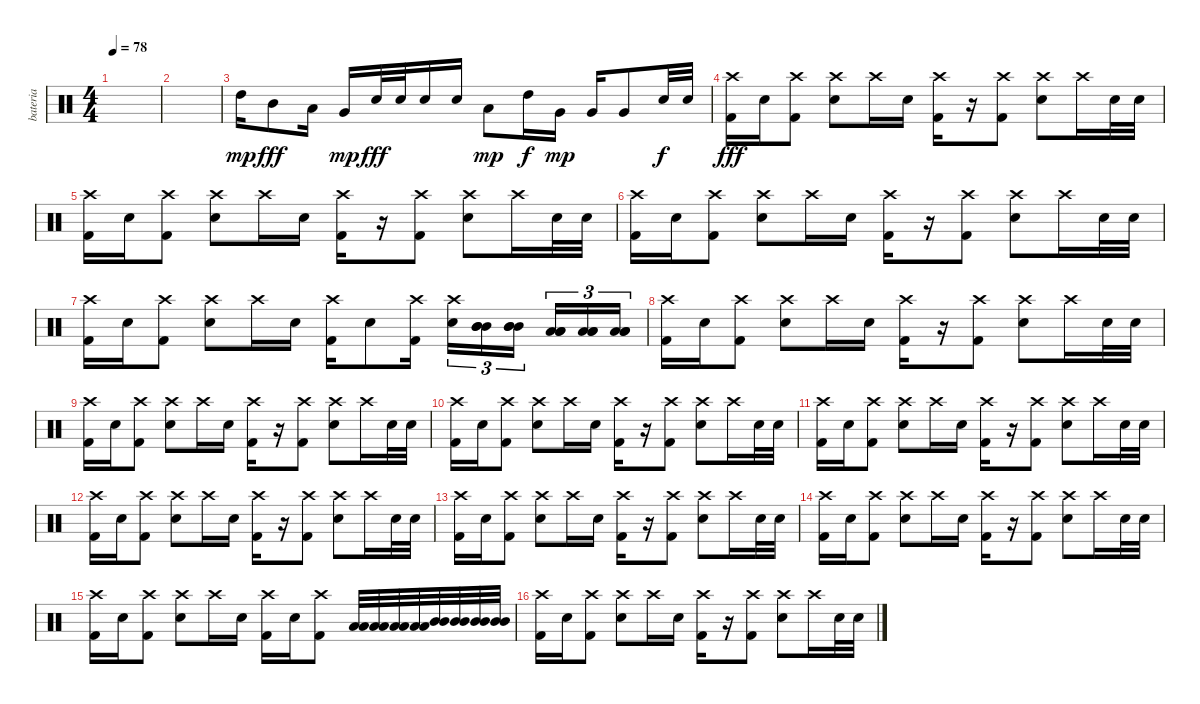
\track ("bateria" "bateria") {instrument percussion}
\staff {score}
\articulation defaults
\ts (4 4)
\tempo 78
\clef neutral
\ks c
|
|
"High Tom (hit)".16{dy mp} "Mid Tom (hit)".8{dy fff} "Low Tom (hit)".16 "Very Low Tom (hit)".16{dy mp} "Electric Snare (hit)".32{dy fff} "Electric Snare (hit)".32 "Electric Snare (hit)".16 "Electric Snare (hit)".16 "Low Tom (hit)".8{dy mp} "High Tom (hit)".16{dy f} "Very Low Tom (hit)".16{dy mp} "Very Low Tom (hit)".16 "Very Low Tom (hit)".8 "Electric Snare (hit)".32{dy f} "Electric Snare (hit)".32 |
("Kick (hit) 2" "Crash high (hit)").16{dy fff} "Electric Snare (hit)".16 ("Kick (hit) 2" "Crash high (hit)").8 ("Electric Snare (hit)" "Crash high (hit)").8 "Crash high (hit)".16 "Electric Snare (hit)".16 ("Kick (hit) 2" "Crash high (hit)").16 r.16 ("Kick (hit) 2" "Crash high (hit)").8 ("Electric Snare (hit)" "Crash high (hit)").8 "Crash high (hit)".16 "Electric Snare (hit)".32 "Electric Snare (hit)".32 |
("Kick (hit) 2" "Crash high (hit)").16 "Electric Snare (hit)".16 ("Kick (hit) 2" "Crash high (hit)").8 ("Electric Snare (hit)" "Crash high (hit)").8 "Crash high (hit)".16 "Electric Snare (hit)".16 ("Kick (hit) 2" "Crash high (hit)").16 r.16 ("Kick (hit) 2" "Crash high (hit)").8 ("Electric Snare (hit)" "Crash high (hit)").8 "Crash high (hit)".16 "Electric Snare (hit)".32 "Electric Snare (hit)".32 |
("Kick (hit) 2" "Crash high (hit)").16 "Electric Snare (hit)".16 ("Kick (hit) 2" "Crash high (hit)").8 ("Electric Snare (hit)" "Crash high (hit)").8 "Crash high (hit)".16 "Electric Snare (hit)".16 ("Kick (hit) 2" "Crash high (hit)").16 r.16 ("Kick (hit) 2" "Crash high (hit)").8 ("Electric Snare (hit)" "Crash high (hit)").8 "Crash high (hit)".16 "Electric Snare (hit)".32 "Electric Snare (hit)".32 |
("Kick (hit) 2" "Crash high (hit)").16 "Electric Snare (hit)".16 ("Kick (hit) 2" "Crash high (hit)").8 ("Electric Snare (hit)" "Crash high (hit)").8 "Crash high (hit)".16 "Electric Snare (hit)".16 ("Kick (hit) 2" "Crash high (hit)").16 "Electric Snare (hit)".8 ("Kick (hit) 2" "Crash high (hit)").16 ("Electric Snare (hit)" "Crash high (hit)").16{tu (3 2)} ("Mid Tom (hit)" "Mid Tom (hit)" "Mid Tom (hit)").16{tu (3 2)} ("Mid Tom (hit)" "Mid Tom (hit)" "Mid Tom (hit)").16{tu (3 2) beam splitsecondary} ("Low Tom (hit)" "Low Tom (hit)" "Low Tom (hit)").16{tu (3 2)} ("Low Tom (hit)" "Low Tom (hit)" "Low Tom (hit)").16{tu (3 2)} ("Low Tom (hit)" "Low Tom (hit)" "Low Tom (hit)").16{tu (3 2)} |
("Kick (hit) 2" "Crash high (hit)").16 "Electric Snare (hit)".16 ("Kick (hit) 2" "Crash high (hit)").8 ("Electric Snare (hit)" "Crash high (hit)").8 "Crash high (hit)".16 "Electric Snare (hit)".16 ("Kick (hit) 2" "Crash high (hit)").16 r.16 ("Kick (hit) 2" "Crash high (hit)").8 ("Electric Snare (hit)" "Crash high (hit)").8 "Crash high (hit)".16 "Electric Snare (hit)".32 "Electric Snare (hit)".32 |
("Kick (hit) 2" "Crash high (hit)").16 "Electric Snare (hit)".16 ("Kick (hit) 2" "Crash high (hit)").8 ("Electric Snare (hit)" "Crash high (hit)").8 "Crash high (hit)".16 "Electric Snare (hit)".16 ("Kick (hit) 2" "Crash high (hit)").16 r.16 ("Kick (hit) 2" "Crash high (hit)").8 ("Electric Snare (hit)" "Crash high (hit)").8 "Crash high (hit)".16 "Electric Snare (hit)".32 "Electric Snare (hit)".32 |
("Kick (hit) 2" "Crash high (hit)").16 "Electric Snare (hit)".16 ("Kick (hit) 2" "Crash high (hit)").8 ("Electric Snare (hit)" "Crash high (hit)").8 "Crash high (hit)".16 "Electric Snare (hit)".16 ("Kick (hit) 2" "Crash high (hit)").16 r.16 ("Kick (hit) 2" "Crash high (hit)").8 ("Electric Snare (hit)" "Crash high (hit)").8 "Crash high (hit)".16 "Electric Snare (hit)".32 "Electric Snare (hit)".32 |
("Kick (hit) 2" "Crash high (hit)").16 "Electric Snare (hit)".16 ("Kick (hit) 2" "Crash high (hit)").8 ("Electric Snare (hit)" "Crash high (hit)").8 "Crash high (hit)".16 "Electric Snare (hit)".16 ("Kick (hit) 2" "Crash high (hit)").16 r.16 ("Kick (hit) 2" "Crash high (hit)").8 ("Electric Snare (hit)" "Crash high (hit)").8 "Crash high (hit)".16 "Electric Snare (hit)".32 "Electric Snare (hit)".32 |
("Kick (hit) 2" "Crash high (hit)").16 "Electric Snare (hit)".16 ("Kick (hit) 2" "Crash high (hit)").8 ("Electric Snare (hit)" "Crash high (hit)").8 "Crash high (hit)".16 "Electric Snare (hit)".16 ("Kick (hit) 2" "Crash high (hit)").16 r.16 ("Kick (hit) 2" "Crash high (hit)").8 ("Electric Snare (hit)" "Crash high (hit)").8 "Crash high (hit)".16 "Electric Snare (hit)".32 "Electric Snare (hit)".32 |
("Kick (hit) 2" "Crash high (hit)").16 "Electric Snare (hit)".16 ("Kick (hit) 2" "Crash high (hit)").8 ("Electric Snare (hit)" "Crash high (hit)").8 "Crash high (hit)".16 "Electric Snare (hit)".16 ("Kick (hit) 2" "Crash high (hit)").16 r.16 ("Kick (hit) 2" "Crash high (hit)").8 ("Electric Snare (hit)" "Crash high (hit)").8 "Crash high (hit)".16 "Electric Snare (hit)".32 "Electric Snare (hit)".32 |
("Kick (hit) 2" "Crash high (hit)").16 "Electric Snare (hit)".16 ("Kick (hit) 2" "Crash high (hit)").8 ("Electric Snare (hit)" "Crash high (hit)").8 "Crash high (hit)".16 "Electric Snare (hit)".16 ("Kick (hit) 2" "Crash high (hit)").16 r.16 ("Kick (hit) 2" "Crash high (hit)").8 ("Electric Snare (hit)" "Crash high (hit)").8 "Crash high (hit)".16 "Electric Snare (hit)".32 "Electric Snare (hit)".32 |
("Kick (hit) 2" "Crash high (hit)").16 "Electric Snare (hit)".16 ("Kick (hit) 2" "Crash high (hit)").8 ("Electric Snare (hit)" "Crash high (hit)").8 "Crash high (hit)".16 "Electric Snare (hit)".16 ("Kick (hit) 2" "Crash high (hit)").16 "Electric Snare (hit)".16 ("Kick (hit) 2" "Crash high (hit)").8 ("Low Tom (hit)" "Low Tom (hit)").32 ("Low Tom (hit)" "Low Tom (hit)").32 ("Low Tom (hit)" "Low Tom (hit)").32 ("Low Tom (hit)" "Low Tom (hit)").32 ("Mid Tom (hit)" "Mid Tom (hit)").32 ("Mid Tom (hit)" "Mid Tom (hit)").32 ("Mid Tom (hit)" "Mid Tom (hit)").32 ("Mid Tom (hit)" "Mid Tom (hit)").32 |
("Kick (hit) 2" "Crash high (hit)").16 "Electric Snare (hit)".16 ("Kick (hit) 2" "Crash high (hit)").8 ("Electric Snare (hit)" "Crash high (hit)").8 "Crash high (hit)".16 "Electric Snare (hit)".16 ("Kick (hit) 2" "Crash high (hit)").16 r.16 ("Kick (hit) 2" "Crash high (hit)").8 ("Electric Snare (hit)" "Crash high (hit)").8 "Crash high (hit)".16 "Electric Snare (hit)".32 "Electric Snare (hit)".32
